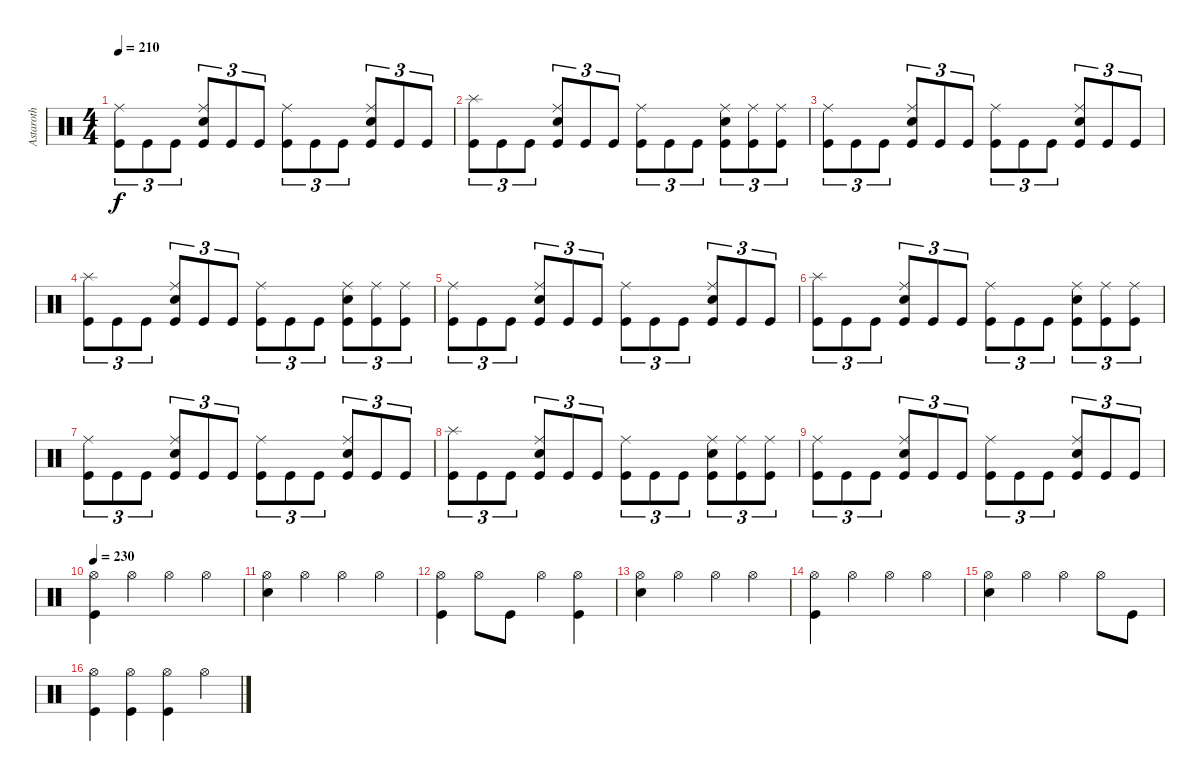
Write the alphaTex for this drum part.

\track ("Astaroth" "Astaroth") {instrument percussion}
\staff {score}
\articulation defaults
\ts (4 4)
\tempo 210
\clef neutral
\ks c
("Kick (hit)" "Ride (middle)").8{tu (3 2) dy f} "Kick (hit)".8{tu (3 2)} "Kick (hit)".8{tu (3 2)} ("Kick (hit)" "Ride (middle)" "Electric Snare (hit)").8{tu (3 2)} "Kick (hit)".8{tu (3 2)} "Kick (hit)".8{tu (3 2)} ("Kick (hit)" "Ride (middle)").8{tu (3 2)} "Kick (hit)".8{tu (3 2)} "Kick (hit)".8{tu (3 2)} ("Kick (hit)" "Ride (middle)" "Electric Snare (hit)").8{tu (3 2)} "Kick (hit)".8{tu (3 2)} "Kick (hit)".8{tu (3 2)} |
("Kick (hit)" "Splash (hit)").8{tu (3 2)} "Kick (hit)".8{tu (3 2)} "Kick (hit)".8{tu (3 2)} ("Kick (hit)" "Ride (middle)" "Electric Snare (hit)").8{tu (3 2)} "Kick (hit)".8{tu (3 2)} "Kick (hit)".8{tu (3 2)} ("Kick (hit)" "Ride (middle)").8{tu (3 2)} "Kick (hit)".8{tu (3 2)} "Kick (hit)".8{tu (3 2)} ("Kick (hit)" "Ride (middle)" "Electric Snare (hit)").8{tu (3 2)} ("Kick (hit)" "Ride (middle)").8{tu (3 2)} ("Kick (hit)" "Ride (middle)").8{tu (3 2)} |
("Kick (hit)" "Ride (middle)").8{tu (3 2)} "Kick (hit)".8{tu (3 2)} "Kick (hit)".8{tu (3 2)} ("Kick (hit)" "Ride (middle)" "Electric Snare (hit)").8{tu (3 2)} "Kick (hit)".8{tu (3 2)} "Kick (hit)".8{tu (3 2)} ("Kick (hit)" "Ride (middle)").8{tu (3 2)} "Kick (hit)".8{tu (3 2)} "Kick (hit)".8{tu (3 2)} ("Kick (hit)" "Ride (middle)" "Electric Snare (hit)").8{tu (3 2)} "Kick (hit)".8{tu (3 2)} "Kick (hit)".8{tu (3 2)} |
("Kick (hit)" "Splash (hit)").8{tu (3 2)} "Kick (hit)".8{tu (3 2)} "Kick (hit)".8{tu (3 2)} ("Kick (hit)" "Ride (middle)" "Electric Snare (hit)").8{tu (3 2)} "Kick (hit)".8{tu (3 2)} "Kick (hit)".8{tu (3 2)} ("Kick (hit)" "Ride (middle)").8{tu (3 2)} "Kick (hit)".8{tu (3 2)} "Kick (hit)".8{tu (3 2)} ("Kick (hit)" "Ride (middle)" "Electric Snare (hit)").8{tu (3 2)} ("Kick (hit)" "Ride (middle)").8{tu (3 2)} ("Kick (hit)" "Ride (middle)").8{tu (3 2)} |
("Kick (hit)" "Ride (middle)").8{tu (3 2)} "Kick (hit)".8{tu (3 2)} "Kick (hit)".8{tu (3 2)} ("Kick (hit)" "Ride (middle)" "Electric Snare (hit)").8{tu (3 2)} "Kick (hit)".8{tu (3 2)} "Kick (hit)".8{tu (3 2)} ("Kick (hit)" "Ride (middle)").8{tu (3 2)} "Kick (hit)".8{tu (3 2)} "Kick (hit)".8{tu (3 2)} ("Kick (hit)" "Ride (middle)" "Electric Snare (hit)").8{tu (3 2)} "Kick (hit)".8{tu (3 2)} "Kick (hit)".8{tu (3 2)} |
("Kick (hit)" "Splash (hit)").8{tu (3 2)} "Kick (hit)".8{tu (3 2)} "Kick (hit)".8{tu (3 2)} ("Kick (hit)" "Ride (middle)" "Electric Snare (hit)").8{tu (3 2)} "Kick (hit)".8{tu (3 2)} "Kick (hit)".8{tu (3 2)} ("Kick (hit)" "Ride (middle)").8{tu (3 2)} "Kick (hit)".8{tu (3 2)} "Kick (hit)".8{tu (3 2)} ("Kick (hit)" "Ride (middle)" "Electric Snare (hit)").8{tu (3 2)} ("Kick (hit)" "Ride (middle)").8{tu (3 2)} ("Kick (hit)" "Ride (middle)").8{tu (3 2)} |
("Kick (hit)" "Ride (middle)").8{tu (3 2)} "Kick (hit)".8{tu (3 2)} "Kick (hit)".8{tu (3 2)} ("Kick (hit)" "Ride (middle)" "Electric Snare (hit)").8{tu (3 2)} "Kick (hit)".8{tu (3 2)} "Kick (hit)".8{tu (3 2)} ("Kick (hit)" "Ride (middle)").8{tu (3 2)} "Kick (hit)".8{tu (3 2)} "Kick (hit)".8{tu (3 2)} ("Kick (hit)" "Ride (middle)" "Electric Snare (hit)").8{tu (3 2)} "Kick (hit)".8{tu (3 2)} "Kick (hit)".8{tu (3 2)} |
("Kick (hit)" "Splash (hit)").8{tu (3 2)} "Kick (hit)".8{tu (3 2)} "Kick (hit)".8{tu (3 2)} ("Kick (hit)" "Ride (middle)" "Electric Snare (hit)").8{tu (3 2)} "Kick (hit)".8{tu (3 2)} "Kick (hit)".8{tu (3 2)} ("Kick (hit)" "Ride (middle)").8{tu (3 2)} "Kick (hit)".8{tu (3 2)} "Kick (hit)".8{tu (3 2)} ("Kick (hit)" "Ride (middle)" "Electric Snare (hit)").8{tu (3 2)} ("Kick (hit)" "Ride (middle)").8{tu (3 2)} ("Kick (hit)" "Ride (middle)").8{tu (3 2)} |
("Kick (hit)" "Ride (middle)").8{tu (3 2)} "Kick (hit)".8{tu (3 2)} "Kick (hit)".8{tu (3 2)} ("Kick (hit)" "Ride (middle)" "Electric Snare (hit)").8{tu (3 2)} "Kick (hit)".8{tu (3 2)} "Kick (hit)".8{tu (3 2)} ("Kick (hit)" "Ride (middle)").8{tu (3 2)} "Kick (hit)".8{tu (3 2)} "Kick (hit)".8{tu (3 2)} ("Kick (hit)" "Ride (middle)" "Electric Snare (hit)").8{tu (3 2)} "Kick (hit)".8{tu (3 2)} "Kick (hit)".8{tu (3 2)} |
\tempo 230
("Kick (hit)" "Hi-Hat (open)").4 "Hi-Hat (open)".4 "Hi-Hat (open)".4 "Hi-Hat (open)".4 |
("Electric Snare (hit)" "Hi-Hat (open)").4 "Hi-Hat (open)".4 "Hi-Hat (open)".4 "Hi-Hat (open)".4 |
("Kick (hit)" "Hi-Hat (open)").4 "Hi-Hat (open)".8 "Kick (hit)".8 "Hi-Hat (open)".4 ("Kick (hit)" "Hi-Hat (open)").4 |
("Electric Snare (hit)" "Hi-Hat (open)").4 "Hi-Hat (open)".4 "Hi-Hat (open)".4 "Hi-Hat (open)".4 |
("Kick (hit)" "Hi-Hat (open)").4 "Hi-Hat (open)".4 "Hi-Hat (open)".4 "Hi-Hat (open)".4 |
("Electric Snare (hit)" "Hi-Hat (open)").4 "Hi-Hat (open)".4 "Hi-Hat (open)".4 "Hi-Hat (open)".8 "Kick (hit)".8 |
("Kick (hit)" "Hi-Hat (open)").4 ("Kick (hit)" "Hi-Hat (open)").4 ("Kick (hit)" "Hi-Hat (open)").4 "Hi-Hat (open)".4
